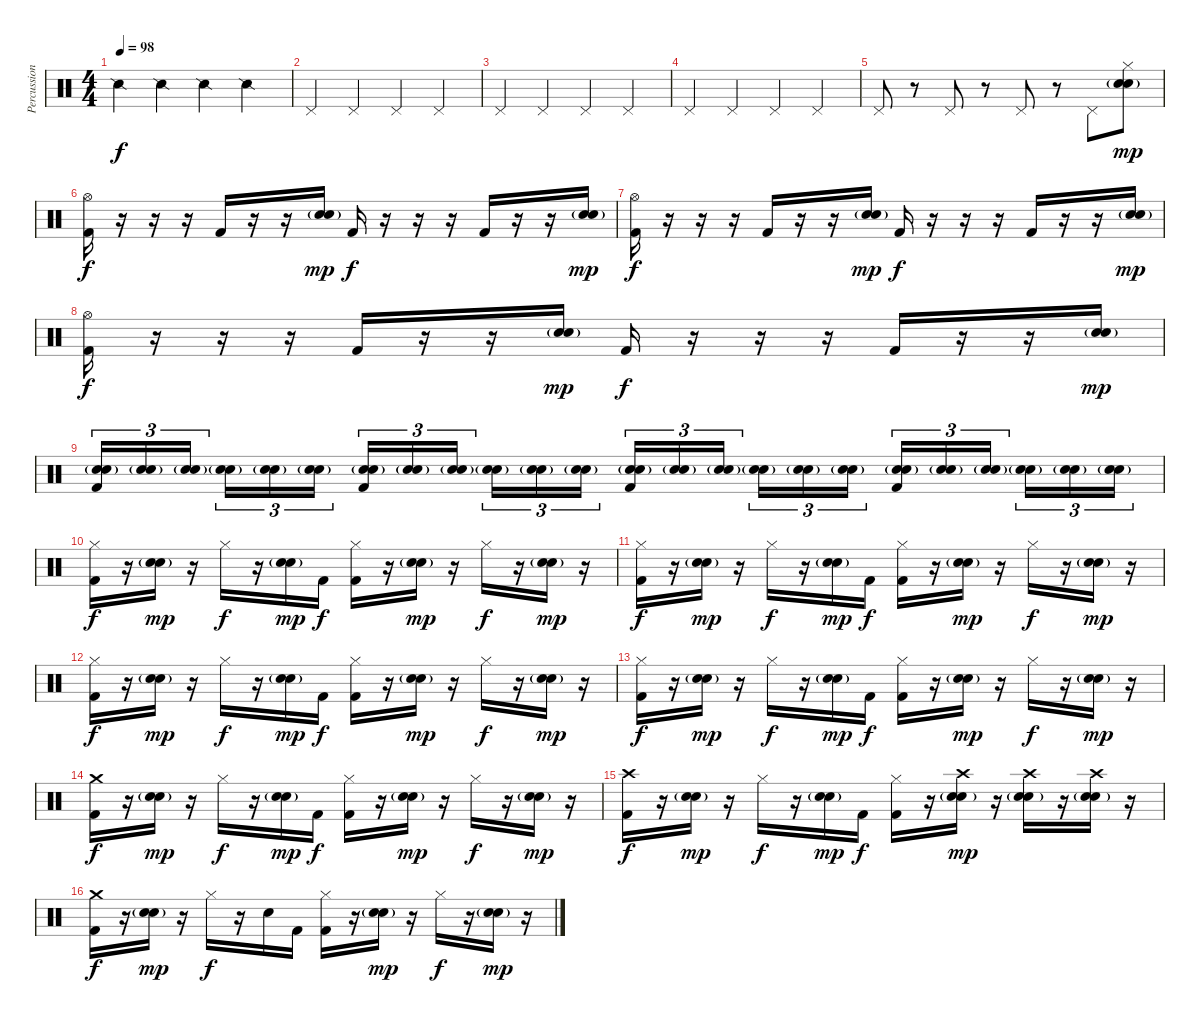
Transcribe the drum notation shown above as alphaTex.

\track ("Percussion" "Percussion") {instrument percussion}
\staff {score}
\articulation defaults
\ts (4 4)
\tempo 98
\clef neutral
\ks c "Snare (side stick) 2".4{dy f} "Snare (side stick) 2".4 "Snare (side stick) 2".4 "Snare (side stick) 2".4
|
"Pedal Hi-Hat (hit)".4 "Pedal Hi-Hat (hit)".4 "Pedal Hi-Hat (hit)".4 "Pedal Hi-Hat (hit)".4 |
"Pedal Hi-Hat (hit)".4 "Pedal Hi-Hat (hit)".4 "Pedal Hi-Hat (hit)".4 "Pedal Hi-Hat (hit)".4 |
"Pedal Hi-Hat (hit)".4 "Pedal Hi-Hat (hit)".4 "Pedal Hi-Hat (hit)".4 "Pedal Hi-Hat (hit)".4 |
"Pedal Hi-Hat (hit)".8 r.8 "Pedal Hi-Hat (hit)".8 r.8 "Pedal Hi-Hat (hit)".8 r.8 "Pedal Hi-Hat (hit)".8 ("Snare (hit) 2" "Electric Snare (hit)"{g} "Hi-Hat (closed)").8{dy mp} |
("Hi-Hat (open)" "Kick (hit) 2").16{dy f} r.16 r.16 r.16 "Kick (hit) 2".16 r.16 r.16 ("Snare (hit) 2" "Electric Snare (hit)"{g}).16{dy mp} "Kick (hit) 2".16{dy f} r.16 r.16 r.16 "Kick (hit) 2".16 r.16 r.16 ("Snare (hit) 2" "Electric Snare (hit)"{g}).16{dy mp} |
("Hi-Hat (open)" "Kick (hit) 2").16{dy f} r.16 r.16 r.16 "Kick (hit) 2".16 r.16 r.16 ("Snare (hit) 2" "Electric Snare (hit)"{g}).16{dy mp} "Kick (hit) 2".16{dy f} r.16 r.16 r.16 "Kick (hit) 2".16 r.16 r.16 ("Snare (hit) 2" "Electric Snare (hit)"{g}).16{dy mp} |
("Hi-Hat (open)" "Kick (hit) 2").16{dy f} r.16 r.16 r.16 "Kick (hit) 2".16 r.16 r.16 ("Snare (hit) 2" "Electric Snare (hit)"{g}).16{dy mp} "Kick (hit) 2".16{dy f} r.16 r.16 r.16 "Kick (hit) 2".16 r.16 r.16 ("Snare (hit) 2" "Electric Snare (hit)"{g}).16{dy mp} |
("Snare (hit) 2" "Electric Snare (hit)"{g} "Kick (hit) 2").16{tu (3 2)} ("Snare (hit) 2"{g} "Electric Snare (hit)"{g}).16{tu (3 2)} ("Snare (hit) 2" "Electric Snare (hit)"{g}).16{tu (3 2)} ("Snare (hit) 2"{g} "Electric Snare (hit)"{g}).16{tu (3 2)} ("Snare (hit) 2" "Electric Snare (hit)"{g}).16{tu (3 2)} ("Snare (hit) 2"{g} "Electric Snare (hit)"{g}).16{tu (3 2)} ("Snare (hit) 2" "Electric Snare (hit)"{g} "Kick (hit) 2").16{tu (3 2)} ("Snare (hit) 2"{g} "Electric Snare (hit)"{g}).16{tu (3 2)} ("Snare (hit) 2" "Electric Snare (hit)"{g}).16{tu (3 2)} ("Snare (hit) 2"{g} "Electric Snare (hit)"{g}).16{tu (3 2)} ("Snare (hit) 2" "Electric Snare (hit)"{g}).16{tu (3 2)} ("Snare (hit) 2"{g} "Electric Snare (hit)"{g}).16{tu (3 2)} ("Snare (hit) 2" "Electric Snare (hit)"{g} "Kick (hit) 2").16{tu (3 2)} ("Snare (hit) 2"{g} "Electric Snare (hit)"{g}).16{tu (3 2)} ("Snare (hit) 2" "Electric Snare (hit)"{g}).16{tu (3 2)} ("Snare (hit) 2"{g} "Electric Snare (hit)"{g}).16{tu (3 2)} ("Snare (hit) 2" "Electric Snare (hit)"{g}).16{tu (3 2)} ("Snare (hit) 2"{g} "Electric Snare (hit)"{g}).16{tu (3 2)} ("Snare (hit) 2" "Electric Snare (hit)"{g} "Kick (hit) 2").16{tu (3 2)} ("Snare (hit) 2"{g} "Electric Snare (hit)"{g}).16{tu (3 2)} ("Snare (hit) 2" "Electric Snare (hit)"{g}).16{tu (3 2)} ("Snare (hit) 2"{g} "Electric Snare (hit)"{g}).16{tu (3 2)} ("Snare (hit) 2" "Electric Snare (hit)"{g}).16{tu (3 2)} ("Snare (hit) 2"{g} "Electric Snare (hit)"{g}).16{tu (3 2)} |
("Hi-Hat (closed)" "Kick (hit) 2").16{dy f} r.16 ("Snare (hit) 2" "Electric Snare (hit)"{g}).16{dy mp} r.16 "Hi-Hat (closed)".16{dy f} r.16 ("Snare (hit) 2" "Electric Snare (hit)"{g}).16{dy mp} "Kick (hit) 2".16{dy f} ("Hi-Hat (closed)" "Kick (hit) 2").16 r.16 ("Snare (hit) 2" "Electric Snare (hit)"{g}).16{dy mp} r.16 "Hi-Hat (closed)".16{dy f} r.16 ("Snare (hit) 2" "Electric Snare (hit)"{g}).16{dy mp} r.16 |
("Hi-Hat (closed)" "Kick (hit) 2").16{dy f} r.16 ("Snare (hit) 2" "Electric Snare (hit)"{g}).16{dy mp} r.16 "Hi-Hat (closed)".16{dy f} r.16 ("Snare (hit) 2" "Electric Snare (hit)"{g}).16{dy mp} "Kick (hit) 2".16{dy f} ("Hi-Hat (closed)" "Kick (hit) 2").16 r.16 ("Snare (hit) 2" "Electric Snare (hit)"{g}).16{dy mp} r.16 "Hi-Hat (closed)".16{dy f} r.16 ("Snare (hit) 2" "Electric Snare (hit)"{g}).16{dy mp} r.16 |
("Hi-Hat (closed)" "Kick (hit) 2").16{dy f} r.16 ("Snare (hit) 2" "Electric Snare (hit)"{g}).16{dy mp} r.16 "Hi-Hat (closed)".16{dy f} r.16 ("Snare (hit) 2" "Electric Snare (hit)"{g}).16{dy mp} "Kick (hit) 2".16{dy f} ("Hi-Hat (closed)" "Kick (hit) 2").16 r.16 ("Snare (hit) 2" "Electric Snare (hit)"{g}).16{dy mp} r.16 "Hi-Hat (closed)".16{dy f} r.16 ("Snare (hit) 2" "Electric Snare (hit)"{g}).16{dy mp} r.16 |
("Hi-Hat (closed)" "Kick (hit) 2").16{dy f} r.16 ("Snare (hit) 2" "Electric Snare (hit)"{g}).16{dy mp} r.16 "Hi-Hat (closed)".16{dy f} r.16 ("Snare (hit) 2" "Electric Snare (hit)"{g}).16{dy mp} "Kick (hit) 2".16{dy f} ("Hi-Hat (closed)" "Kick (hit) 2").16 r.16 ("Snare (hit) 2" "Electric Snare (hit)"{g}).16{dy mp} r.16 "Hi-Hat (closed)".16{dy f} r.16 ("Snare (hit) 2" "Electric Snare (hit)"{g}).16{dy mp} r.16 |
("Crash medium (hit)" "Kick (hit) 2").16{dy f} r.16 ("Snare (hit) 2" "Electric Snare (hit)"{g}).16{dy mp} r.16 "Hi-Hat (closed)".16{dy f} r.16 ("Snare (hit) 2" "Electric Snare (hit)"{g}).16{dy mp} "Kick (hit) 2".16{dy f} ("Hi-Hat (closed)" "Kick (hit) 2").16 r.16 ("Snare (hit) 2" "Electric Snare (hit)"{g}).16{dy mp} r.16 "Hi-Hat (closed)".16{dy f} r.16 ("Snare (hit) 2" "Electric Snare (hit)"{g}).16{dy mp} r.16 |
("Crash high (hit)" "Kick (hit) 2").16{dy f} r.16 ("Snare (hit) 2" "Electric Snare (hit)"{g}).16{dy mp} r.16 "Hi-Hat (closed)".16{dy f} r.16 ("Snare (hit) 2" "Electric Snare (hit)"{g}).16{dy mp} "Kick (hit) 2".16{dy f} ("Hi-Hat (closed)" "Kick (hit) 2").16 r.16 ("Snare (hit) 2" "Crash high (hit)" "Electric Snare (hit)"{g}).16{dy mp} r.16 ("Snare (hit) 2" "Crash high (hit)" "Electric Snare (hit)"{g}).16 r.16 ("Snare (hit) 2" "Crash high (hit)" "Electric Snare (hit)"{g}).16 r.16 |
("Crash medium (hit)" "Kick (hit) 2").16{dy f} r.16 ("Snare (hit) 2" "Electric Snare (hit)"{g}).16{dy mp} r.16 "Hi-Hat (closed)".16{dy f} r.16 "Electric Snare (hit)".16 "Kick (hit) 2".16 ("Hi-Hat (closed)" "Kick (hit) 2").16 r.16 ("Snare (hit) 2" "Electric Snare (hit)"{g}).16{dy mp} r.16 "Hi-Hat (closed)".16{dy f} r.16 ("Snare (hit) 2" "Electric Snare (hit)"{g}).16{dy mp} r.16
